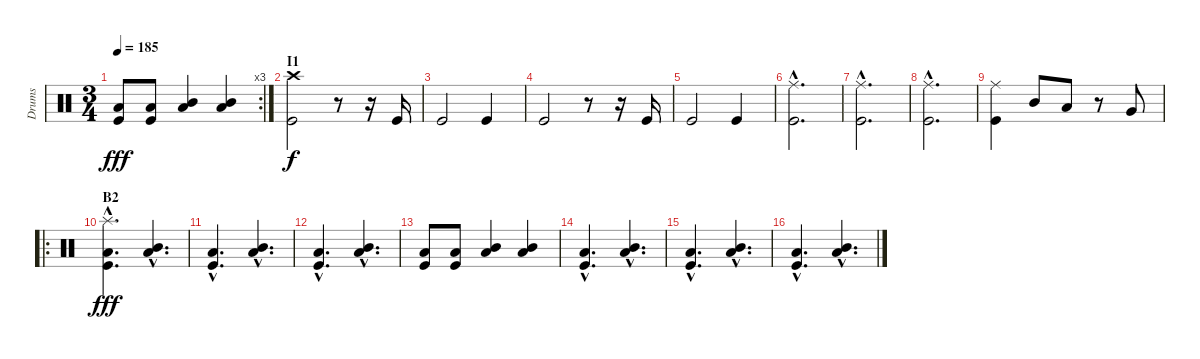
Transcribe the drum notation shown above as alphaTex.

\track ("Drums" "Drums") {instrument percussion}
\staff {score}
\articulation defaults
\rc 3
\ts (3 4)
\tempo 185
\clef neutral
\ks c
("Low Floor Tom (hit)" "Kick (hit)").8{dy fff} ("Low Floor Tom (hit)" "Kick (hit)").8 ("Mid Tom (hit)" "Low Floor Tom (hit)").4 ("Mid Tom (hit)" "Low Floor Tom (hit)").4 |
\section ("" "I1")
("Crash high (hit)" "Kick (hit)").2{dy f} r.8 r.16 "Kick (hit)".16 |
"Kick (hit)".2 "Kick (hit)".4 |
"Kick (hit)".2 r.8 r.16 "Kick (hit)".16 |
"Kick (hit)".2 "Kick (hit)".4 |
("Ride (middle)"{hac} "Kick (hit)"{hac}).2{d} |
("Ride (middle)"{hac} "Kick (hit)"{hac}).2{d} |
("Ride (middle)"{hac} "Kick (hit)"{hac}).2{d} |
("Ride (middle)" "Kick (hit)").4 "Mid Tom (hit)".8 "Low Tom (hit)".8 r.8 "Very Low Tom (hit)".8 |
\ro
\section ("" "B2")
("Splash (hit)"{hac} "Low Floor Tom (hit)"{hac} "Kick (hit)"{hac}).4{d dy fff} ("Mid Tom (hit)"{hac} "Low Floor Tom (hit)"{hac}).4{d} |
("Low Floor Tom (hit)"{hac} "Kick (hit)"{hac}).4{d} ("Mid Tom (hit)"{hac} "Low Floor Tom (hit)"{hac}).4{d} |
("Low Floor Tom (hit)"{hac} "Kick (hit)"{hac}).4{d} ("Mid Tom (hit)"{hac} "Low Floor Tom (hit)"{hac}).4{d} |
("Low Floor Tom (hit)" "Kick (hit)").8 ("Low Floor Tom (hit)" "Kick (hit)").8 ("Mid Tom (hit)" "Low Floor Tom (hit)").4 ("Mid Tom (hit)" "Low Floor Tom (hit)").4 |
("Low Floor Tom (hit)"{hac} "Kick (hit)"{hac}).4{d} ("Mid Tom (hit)"{hac} "Low Floor Tom (hit)"{hac}).4{d} |
("Low Floor Tom (hit)"{hac} "Kick (hit)"{hac}).4{d} ("Mid Tom (hit)"{hac} "Low Floor Tom (hit)"{hac}).4{d} |
("Low Floor Tom (hit)"{hac} "Kick (hit)"{hac}).4{d} ("Mid Tom (hit)"{hac} "Low Floor Tom (hit)"{hac}).4{d}
